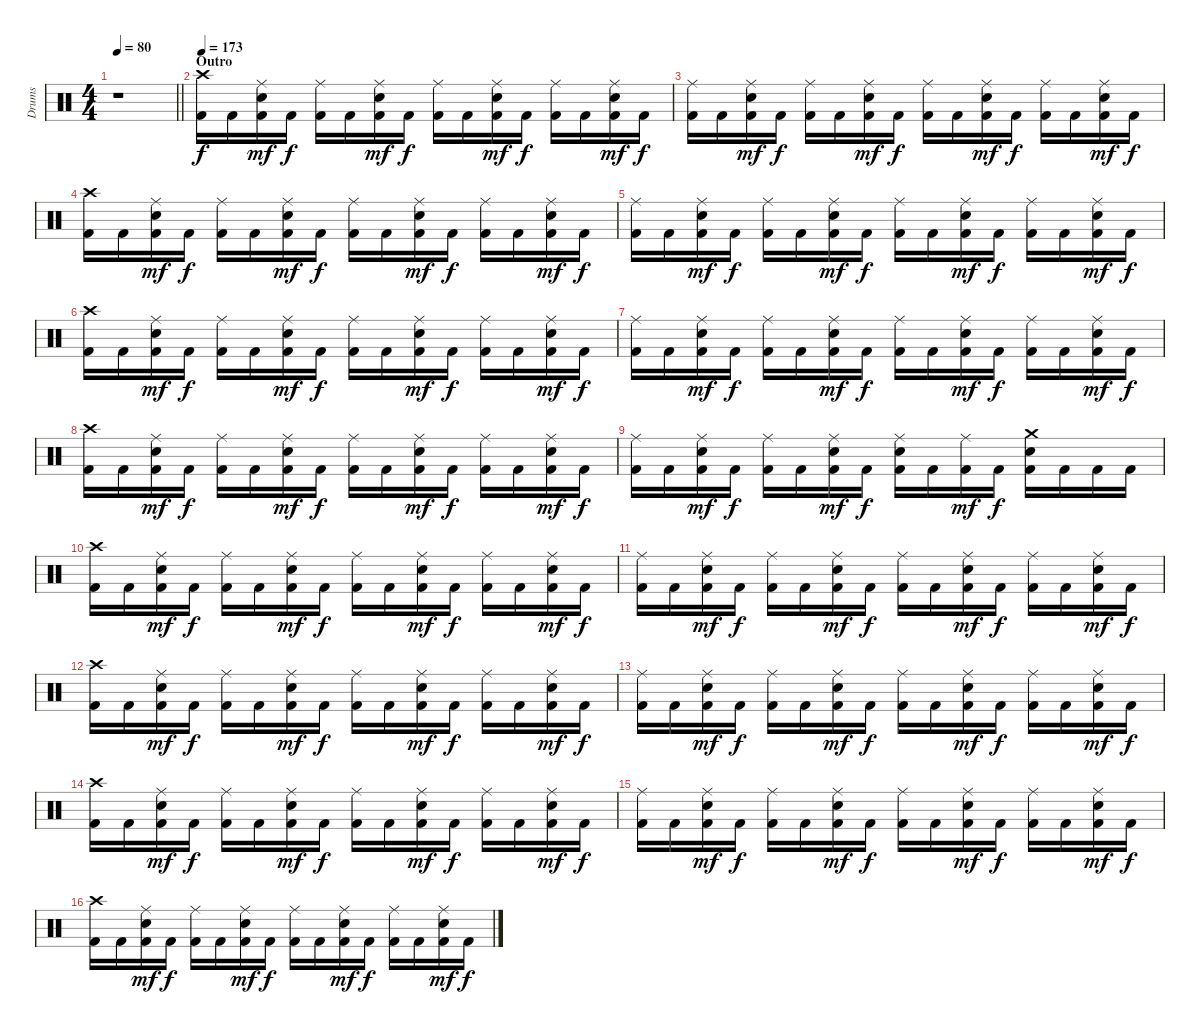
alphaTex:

\track ("Drums" "Drums") {instrument percussion}
\staff {score}
\articulation defaults
\ts (4 4)
\tempo 80
\clef neutral
\barLineRight lightlight
\ks c
r.1{dy f} |
\section ("" "Outro")
\tempo 173
("Kick (hit) 2" "Crash high (hit)").16 "Kick (hit) 2".16 ("Kick (hit) 2" "Ride (middle)" "Electric Snare (hit)").16{dy mf} "Kick (hit) 2".16{dy f} ("Kick (hit) 2" "Ride (middle)").16 "Kick (hit) 2".16 ("Kick (hit) 2" "Ride (middle)" "Electric Snare (hit)").16{dy mf} "Kick (hit) 2".16{dy f} ("Kick (hit) 2" "Ride (middle)").16 "Kick (hit) 2".16 ("Kick (hit) 2" "Ride (middle)" "Electric Snare (hit)").16{dy mf} "Kick (hit) 2".16{dy f} ("Kick (hit) 2" "Ride (middle)").16 "Kick (hit) 2".16 ("Kick (hit) 2" "Ride (middle)" "Electric Snare (hit)").16{dy mf} "Kick (hit) 2".16{dy f} |
("Kick (hit) 2" "Ride (middle)").16 "Kick (hit) 2".16 ("Kick (hit) 2" "Ride (middle)" "Electric Snare (hit)").16{dy mf} "Kick (hit) 2".16{dy f} ("Kick (hit) 2" "Ride (middle)").16 "Kick (hit) 2".16 ("Kick (hit) 2" "Ride (middle)" "Electric Snare (hit)").16{dy mf} "Kick (hit) 2".16{dy f} ("Kick (hit) 2" "Ride (middle)").16 "Kick (hit) 2".16 ("Kick (hit) 2" "Ride (middle)" "Electric Snare (hit)").16{dy mf} "Kick (hit) 2".16{dy f} ("Kick (hit) 2" "Ride (middle)").16 "Kick (hit) 2".16 ("Kick (hit) 2" "Ride (middle)" "Electric Snare (hit)").16{dy mf} "Kick (hit) 2".16{dy f} |
("Kick (hit) 2" "Crash high (hit)").16 "Kick (hit) 2".16 ("Kick (hit) 2" "Ride (middle)" "Electric Snare (hit)").16{dy mf} "Kick (hit) 2".16{dy f} ("Kick (hit) 2" "Ride (middle)").16 "Kick (hit) 2".16 ("Kick (hit) 2" "Ride (middle)" "Electric Snare (hit)").16{dy mf} "Kick (hit) 2".16{dy f} ("Kick (hit) 2" "Ride (middle)").16 "Kick (hit) 2".16 ("Kick (hit) 2" "Ride (middle)" "Electric Snare (hit)").16{dy mf} "Kick (hit) 2".16{dy f} ("Kick (hit) 2" "Ride (middle)").16 "Kick (hit) 2".16 ("Kick (hit) 2" "Ride (middle)" "Electric Snare (hit)").16{dy mf} "Kick (hit) 2".16{dy f} |
("Kick (hit) 2" "Ride (middle)").16 "Kick (hit) 2".16 ("Kick (hit) 2" "Ride (middle)" "Electric Snare (hit)").16{dy mf} "Kick (hit) 2".16{dy f} ("Kick (hit) 2" "Ride (middle)").16 "Kick (hit) 2".16 ("Kick (hit) 2" "Ride (middle)" "Electric Snare (hit)").16{dy mf} "Kick (hit) 2".16{dy f} ("Kick (hit) 2" "Ride (middle)").16 "Kick (hit) 2".16 ("Kick (hit) 2" "Ride (middle)" "Electric Snare (hit)").16{dy mf} "Kick (hit) 2".16{dy f} ("Kick (hit) 2" "Ride (middle)").16 "Kick (hit) 2".16 ("Kick (hit) 2" "Ride (middle)" "Electric Snare (hit)").16{dy mf} "Kick (hit) 2".16{dy f} |
("Kick (hit) 2" "Crash high (hit)").16 "Kick (hit) 2".16 ("Kick (hit) 2" "Ride (middle)" "Electric Snare (hit)").16{dy mf} "Kick (hit) 2".16{dy f} ("Kick (hit) 2" "Ride (middle)").16 "Kick (hit) 2".16 ("Kick (hit) 2" "Ride (middle)" "Electric Snare (hit)").16{dy mf} "Kick (hit) 2".16{dy f} ("Kick (hit) 2" "Ride (middle)").16 "Kick (hit) 2".16 ("Kick (hit) 2" "Ride (middle)" "Electric Snare (hit)").16{dy mf} "Kick (hit) 2".16{dy f} ("Kick (hit) 2" "Ride (middle)").16 "Kick (hit) 2".16 ("Kick (hit) 2" "Ride (middle)" "Electric Snare (hit)").16{dy mf} "Kick (hit) 2".16{dy f} |
("Kick (hit) 2" "Ride (middle)").16 "Kick (hit) 2".16 ("Kick (hit) 2" "Ride (middle)" "Electric Snare (hit)").16{dy mf} "Kick (hit) 2".16{dy f} ("Kick (hit) 2" "Ride (middle)").16 "Kick (hit) 2".16 ("Kick (hit) 2" "Ride (middle)" "Electric Snare (hit)").16{dy mf} "Kick (hit) 2".16{dy f} ("Kick (hit) 2" "Ride (middle)").16 "Kick (hit) 2".16 ("Kick (hit) 2" "Ride (middle)" "Electric Snare (hit)").16{dy mf} "Kick (hit) 2".16{dy f} ("Kick (hit) 2" "Ride (middle)").16 "Kick (hit) 2".16 ("Kick (hit) 2" "Ride (middle)" "Electric Snare (hit)").16{dy mf} "Kick (hit) 2".16{dy f} |
("Kick (hit) 2" "Crash high (hit)").16 "Kick (hit) 2".16 ("Kick (hit) 2" "Ride (middle)" "Electric Snare (hit)").16{dy mf} "Kick (hit) 2".16{dy f} ("Kick (hit) 2" "Ride (middle)").16 "Kick (hit) 2".16 ("Kick (hit) 2" "Ride (middle)" "Electric Snare (hit)").16{dy mf} "Kick (hit) 2".16{dy f} ("Kick (hit) 2" "Ride (middle)").16 "Kick (hit) 2".16 ("Kick (hit) 2" "Ride (middle)" "Electric Snare (hit)").16{dy mf} "Kick (hit) 2".16{dy f} ("Kick (hit) 2" "Ride (middle)").16 "Kick (hit) 2".16 ("Kick (hit) 2" "Ride (middle)" "Electric Snare (hit)").16{dy mf} "Kick (hit) 2".16{dy f} |
("Kick (hit) 2" "Ride (middle)").16 "Kick (hit) 2".16 ("Kick (hit) 2" "Ride (middle)" "Electric Snare (hit)").16{dy mf} "Kick (hit) 2".16{dy f} ("Kick (hit) 2" "Ride (middle)").16 "Kick (hit) 2".16 ("Kick (hit) 2" "Ride (middle)" "Electric Snare (hit)").16{dy mf} "Kick (hit) 2".16{dy f} ("Kick (hit) 2" "Ride (middle)" "Electric Snare (hit)").16 "Kick (hit) 2".16 ("Kick (hit) 2" "Ride (middle)").16{dy mf} "Kick (hit) 2".16{dy f} ("Kick (hit) 2" "Crash medium (hit)" "Electric Snare (hit)").16 "Kick (hit) 2".16 "Kick (hit) 2".16 "Kick (hit) 2".16 |
("Kick (hit) 2" "Crash high (hit)").16 "Kick (hit) 2".16 ("Kick (hit) 2" "Ride (middle)" "Electric Snare (hit)").16{dy mf} "Kick (hit) 2".16{dy f} ("Kick (hit) 2" "Ride (middle)").16 "Kick (hit) 2".16 ("Kick (hit) 2" "Ride (middle)" "Electric Snare (hit)").16{dy mf} "Kick (hit) 2".16{dy f} ("Kick (hit) 2" "Ride (middle)").16 "Kick (hit) 2".16 ("Kick (hit) 2" "Ride (middle)" "Electric Snare (hit)").16{dy mf} "Kick (hit) 2".16{dy f} ("Kick (hit) 2" "Ride (middle)").16 "Kick (hit) 2".16 ("Kick (hit) 2" "Ride (middle)" "Electric Snare (hit)").16{dy mf} "Kick (hit) 2".16{dy f} |
("Kick (hit) 2" "Ride (middle)").16 "Kick (hit) 2".16 ("Kick (hit) 2" "Ride (middle)" "Electric Snare (hit)").16{dy mf} "Kick (hit) 2".16{dy f} ("Kick (hit) 2" "Ride (middle)").16 "Kick (hit) 2".16 ("Kick (hit) 2" "Ride (middle)" "Electric Snare (hit)").16{dy mf} "Kick (hit) 2".16{dy f} ("Kick (hit) 2" "Ride (middle)").16 "Kick (hit) 2".16 ("Kick (hit) 2" "Ride (middle)" "Electric Snare (hit)").16{dy mf} "Kick (hit) 2".16{dy f} ("Kick (hit) 2" "Ride (middle)").16 "Kick (hit) 2".16 ("Kick (hit) 2" "Ride (middle)" "Electric Snare (hit)").16{dy mf} "Kick (hit) 2".16{dy f} |
("Kick (hit) 2" "Crash high (hit)").16 "Kick (hit) 2".16 ("Kick (hit) 2" "Ride (middle)" "Electric Snare (hit)").16{dy mf} "Kick (hit) 2".16{dy f} ("Kick (hit) 2" "Ride (middle)").16 "Kick (hit) 2".16 ("Kick (hit) 2" "Ride (middle)" "Electric Snare (hit)").16{dy mf} "Kick (hit) 2".16{dy f} ("Kick (hit) 2" "Ride (middle)").16 "Kick (hit) 2".16 ("Kick (hit) 2" "Ride (middle)" "Electric Snare (hit)").16{dy mf} "Kick (hit) 2".16{dy f} ("Kick (hit) 2" "Ride (middle)").16 "Kick (hit) 2".16 ("Kick (hit) 2" "Ride (middle)" "Electric Snare (hit)").16{dy mf} "Kick (hit) 2".16{dy f} |
("Kick (hit) 2" "Ride (middle)").16 "Kick (hit) 2".16 ("Kick (hit) 2" "Ride (middle)" "Electric Snare (hit)").16{dy mf} "Kick (hit) 2".16{dy f} ("Kick (hit) 2" "Ride (middle)").16 "Kick (hit) 2".16 ("Kick (hit) 2" "Ride (middle)" "Electric Snare (hit)").16{dy mf} "Kick (hit) 2".16{dy f} ("Kick (hit) 2" "Ride (middle)").16 "Kick (hit) 2".16 ("Kick (hit) 2" "Ride (middle)" "Electric Snare (hit)").16{dy mf} "Kick (hit) 2".16{dy f} ("Kick (hit) 2" "Ride (middle)").16 "Kick (hit) 2".16 ("Kick (hit) 2" "Ride (middle)" "Electric Snare (hit)").16{dy mf} "Kick (hit) 2".16{dy f} |
("Kick (hit) 2" "Crash high (hit)").16 "Kick (hit) 2".16 ("Kick (hit) 2" "Ride (middle)" "Electric Snare (hit)").16{dy mf} "Kick (hit) 2".16{dy f} ("Kick (hit) 2" "Ride (middle)").16 "Kick (hit) 2".16 ("Kick (hit) 2" "Ride (middle)" "Electric Snare (hit)").16{dy mf} "Kick (hit) 2".16{dy f} ("Kick (hit) 2" "Ride (middle)").16 "Kick (hit) 2".16 ("Kick (hit) 2" "Ride (middle)" "Electric Snare (hit)").16{dy mf} "Kick (hit) 2".16{dy f} ("Kick (hit) 2" "Ride (middle)").16 "Kick (hit) 2".16 ("Kick (hit) 2" "Ride (middle)" "Electric Snare (hit)").16{dy mf} "Kick (hit) 2".16{dy f} |
("Kick (hit) 2" "Ride (middle)").16 "Kick (hit) 2".16 ("Kick (hit) 2" "Ride (middle)" "Electric Snare (hit)").16{dy mf} "Kick (hit) 2".16{dy f} ("Kick (hit) 2" "Ride (middle)").16 "Kick (hit) 2".16 ("Kick (hit) 2" "Ride (middle)" "Electric Snare (hit)").16{dy mf} "Kick (hit) 2".16{dy f} ("Kick (hit) 2" "Ride (middle)").16 "Kick (hit) 2".16 ("Kick (hit) 2" "Ride (middle)" "Electric Snare (hit)").16{dy mf} "Kick (hit) 2".16{dy f} ("Kick (hit) 2" "Ride (middle)").16 "Kick (hit) 2".16 ("Kick (hit) 2" "Ride (middle)" "Electric Snare (hit)").16{dy mf} "Kick (hit) 2".16{dy f} |
("Kick (hit) 2" "Crash high (hit)").16 "Kick (hit) 2".16 ("Kick (hit) 2" "Ride (middle)" "Electric Snare (hit)").16{dy mf} "Kick (hit) 2".16{dy f} ("Kick (hit) 2" "Ride (middle)").16 "Kick (hit) 2".16 ("Kick (hit) 2" "Ride (middle)" "Electric Snare (hit)").16{dy mf} "Kick (hit) 2".16{dy f} ("Kick (hit) 2" "Ride (middle)").16 "Kick (hit) 2".16 ("Kick (hit) 2" "Ride (middle)" "Electric Snare (hit)").16{dy mf} "Kick (hit) 2".16{dy f} ("Kick (hit) 2" "Ride (middle)").16 "Kick (hit) 2".16 ("Kick (hit) 2" "Ride (middle)" "Electric Snare (hit)").16{dy mf} "Kick (hit) 2".16{dy f}
